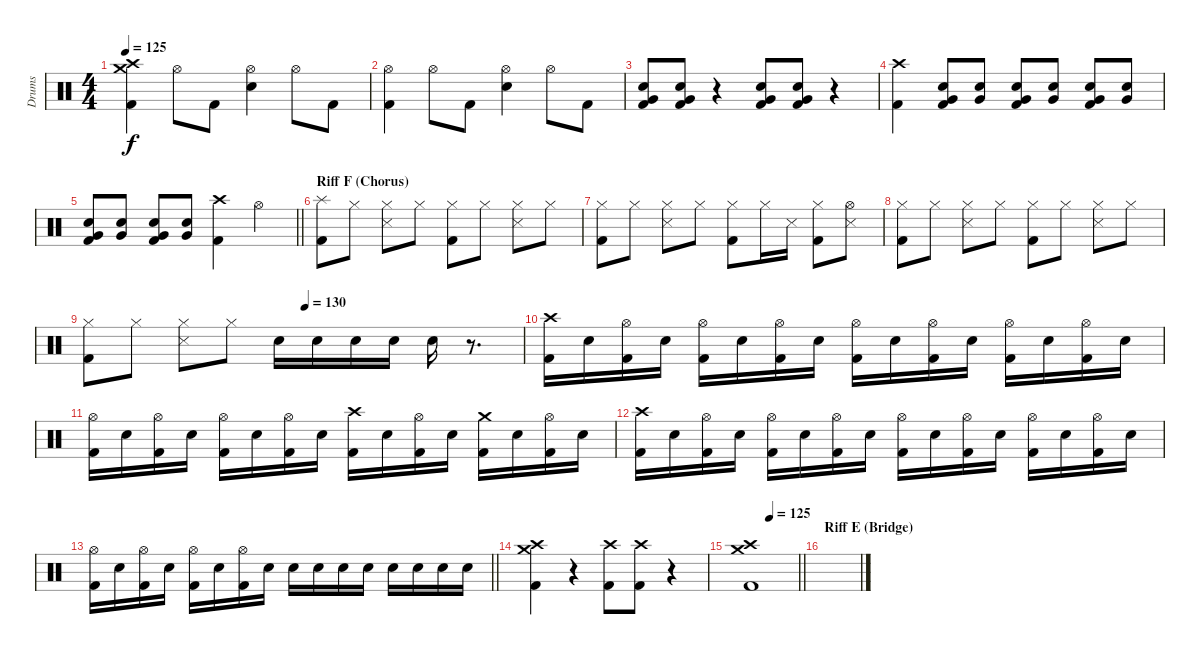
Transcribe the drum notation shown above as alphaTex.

\track ("Drums" "Drums") {instrument percussion}
\staff {score}
\articulation defaults
\ts (4 4)
\tempo 125
\clef neutral
\ks c
("Crash high (hit)" "Crash medium (hit)" "Kick (hit) 2").4{dy f} "Hi-Hat (open)".8 "Kick (hit) 2".8 ("Hi-Hat (open)" "Snare (hit) 2").4 "Hi-Hat (open)".8 "Kick (hit) 2".8 |
("Hi-Hat (open)" "Kick (hit) 2").4 "Hi-Hat (open)".8 "Kick (hit) 2".8 ("Hi-Hat (open)" "Snare (hit) 2").4 "Hi-Hat (open)".8 "Kick (hit) 2".8 |
("Very Low Tom (hit)" "Snare (hit) 2" "Kick (hit) 2").8 ("Very Low Tom (hit)" "Snare (hit) 2" "Kick (hit) 2").8 r.4 ("Very Low Tom (hit)" "Snare (hit) 2" "Kick (hit) 2").8 ("Very Low Tom (hit)" "Snare (hit) 2" "Kick (hit) 2").8 r.4 |
("Crash high (hit)" "Kick (hit) 2").4 ("Very Low Tom (hit)" "Snare (hit) 2" "Kick (hit) 2").8 ("Very Low Tom (hit)" "Snare (hit) 2").8 ("Very Low Tom (hit)" "Snare (hit) 2" "Kick (hit) 2").8 ("Very Low Tom (hit)" "Snare (hit) 2").8 ("Very Low Tom (hit)" "Snare (hit) 2" "Kick (hit) 2").8 ("Very Low Tom (hit)" "Snare (hit) 2").8 |
\barLineRight lightlight
("Very Low Tom (hit)" "Snare (hit) 2" "Kick (hit) 2").8 ("Very Low Tom (hit)" "Snare (hit) 2").8 ("Very Low Tom (hit)" "Snare (hit) 2" "Kick (hit) 2").8 ("Very Low Tom (hit)" "Snare (hit) 2").8 ("Crash high (hit)" "Kick (hit) 2").4 "Hi-Hat (open)".4 |
\section ("" "Riff F (Chorus)")
("Splash (hit)" "Kick (hit) 2").8 "Hi-Hat (closed)".8 ("Hi-Hat (closed)" "Snare (side stick) 3").8 "Hi-Hat (closed)".8 ("Hi-Hat (closed)" "Kick (hit) 2").8 "Hi-Hat (closed)".8 ("Hi-Hat (closed)" "Snare (side stick) 3").8 "Hi-Hat (closed)".8 |
("Hi-Hat (closed)" "Kick (hit) 2").8 "Hi-Hat (closed)".8 ("Hi-Hat (closed)" "Snare (side stick) 3").8 "Hi-Hat (closed)".8 ("Hi-Hat (closed)" "Kick (hit) 2").8 "Hi-Hat (closed)".16 "Snare (side stick) 3".16 ("Hi-Hat (closed)" "Kick (hit) 2").8 ("Hi-Hat (open)" "Snare (side stick) 3").8 |
("Hi-Hat (closed)" "Kick (hit) 2").8 "Hi-Hat (closed)".8 ("Hi-Hat (closed)" "Snare (side stick) 3").8 "Hi-Hat (closed)".8 ("Hi-Hat (closed)" "Kick (hit) 2").8 "Hi-Hat (closed)".8 ("Hi-Hat (closed)" "Snare (side stick) 3").8 "Hi-Hat (closed)".8 |
\tempo (130 0.5)
("Hi-Hat (closed)" "Kick (hit) 2").8 "Hi-Hat (closed)".8 ("Hi-Hat (closed)" "Snare (side stick) 3").8 "Hi-Hat (closed)".8 "Snare (hit) 2".16 "Snare (hit) 2".16 "Snare (hit) 2".16 "Snare (hit) 2".16 "Snare (hit) 2".16 r.8{d} |
("Crash high (hit)" "Kick (hit) 2").16 "Snare (hit) 2".16 ("Hi-Hat (open)" "Kick (hit) 2").16 "Snare (hit) 2".16 ("Hi-Hat (open)" "Kick (hit) 2").16 "Snare (hit) 2".16 ("Hi-Hat (open)" "Kick (hit) 2").16 "Snare (hit) 2".16 ("Hi-Hat (open)" "Kick (hit) 2").16 "Snare (hit) 2".16 ("Hi-Hat (open)" "Kick (hit) 2").16 "Snare (hit) 2".16 ("Hi-Hat (open)" "Kick (hit) 2").16 "Snare (hit) 2".16 ("Hi-Hat (open)" "Kick (hit) 2").16 "Snare (hit) 2".16 |
("Hi-Hat (open)" "Kick (hit) 2").16 "Snare (hit) 2".16 ("Hi-Hat (open)" "Kick (hit) 2").16 "Snare (hit) 2".16 ("Hi-Hat (open)" "Kick (hit) 2").16 "Snare (hit) 2".16 ("Hi-Hat (open)" "Kick (hit) 2").16 "Snare (hit) 2".16 ("Crash high (hit)" "Kick (hit) 2").16 "Snare (hit) 2".16 ("Hi-Hat (open)" "Kick (hit) 2").16 "Snare (hit) 2".16 ("Crash medium (hit)" "Kick (hit) 2").16 "Snare (hit) 2".16 ("Hi-Hat (open)" "Kick (hit) 2").16 "Snare (hit) 2".16 |
("Crash high (hit)" "Kick (hit) 2").16 "Snare (hit) 2".16 ("Hi-Hat (open)" "Kick (hit) 2").16 "Snare (hit) 2".16 ("Hi-Hat (open)" "Kick (hit) 2").16 "Snare (hit) 2".16 ("Hi-Hat (open)" "Kick (hit) 2").16 "Snare (hit) 2".16 ("Hi-Hat (open)" "Kick (hit) 2").16 "Snare (hit) 2".16 ("Hi-Hat (open)" "Kick (hit) 2").16 "Snare (hit) 2".16 ("Hi-Hat (open)" "Kick (hit) 2").16 "Snare (hit) 2".16 ("Hi-Hat (open)" "Kick (hit) 2").16 "Snare (hit) 2".16 |
\barLineRight lightlight
("Hi-Hat (open)" "Kick (hit) 2").16 "Snare (hit) 2".16 ("Hi-Hat (open)" "Kick (hit) 2").16 "Snare (hit) 2".16 ("Hi-Hat (open)" "Kick (hit) 2").16 "Snare (hit) 2".16 ("Hi-Hat (open)" "Kick (hit) 2").16 "Snare (hit) 2".16 "Snare (hit) 2".16 "Snare (hit) 2".16 "Snare (hit) 2".16 "Snare (hit) 2".16 "Snare (hit) 2".16 "Snare (hit) 2".16 "Snare (hit) 2".16 "Snare (hit) 2".16 |
("Crash high (hit)" "Crash medium (hit)" "Kick (hit) 2").4 r.4 ("Crash high (hit)" "Kick (hit) 2").8 ("Crash high (hit)" "Kick (hit) 2").8 r.4 |
\tempo (125 0.5)
\barLineRight lightlight
("Crash high (hit)" "Crash medium (hit)" "Kick (hit) 2").1 |
\section ("" "Riff E (Bridge)")
